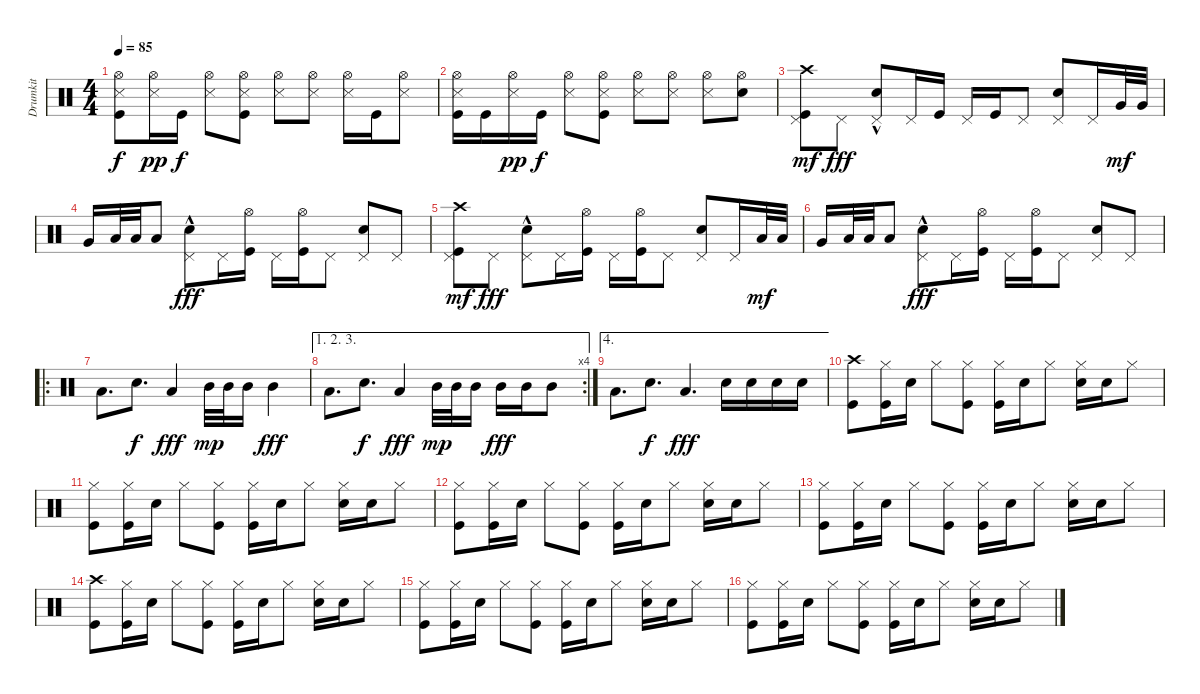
\track ("Drumkit" "Drumkit") {instrument percussion}
\staff {score}
\articulation defaults
\ts (4 4)
\tempo 85
\clef neutral
\ks c
("Snare (side stick) 3" "Kick (hit)" "Hi-Hat (open)").8{dy f} ("Snare (side stick) 3" "Hi-Hat (open)").16{dy pp} "Kick (hit)".16{dy f} ("Snare (side stick) 3" "Hi-Hat (open)").8 ("Snare (side stick) 3" "Hi-Hat (open)" "Kick (hit)").8 ("Snare (side stick) 3" "Hi-Hat (open)").8 ("Snare (side stick) 3" "Hi-Hat (open)").8 ("Snare (side stick) 3" "Hi-Hat (open)").16 "Kick (hit)".16 ("Snare (side stick) 3" "Hi-Hat (open)").8 |
("Snare (side stick) 3" "Kick (hit)" "Hi-Hat (open)").16 "Kick (hit)".16 ("Snare (side stick) 3" "Hi-Hat (open)").16{dy pp} "Kick (hit)".16{dy f} ("Snare (side stick) 3" "Hi-Hat (open)").8 ("Snare (side stick) 3" "Hi-Hat (open)" "Kick (hit)").8 ("Snare (side stick) 3" "Hi-Hat (open)").8 ("Snare (side stick) 3" "Hi-Hat (open)").8 ("Snare (side stick) 3" "Hi-Hat (open)").8 ("Snare (hit) 2" "Hi-Hat (open)").8 |
("Kick (hit)" "Pedal Hi-Hat (hit)" "Crash high (hit)").8{dy mf} "Pedal Hi-Hat (hit)".8{dy fff} ("Pedal Hi-Hat (hit)" "Snare (hit) 2"{hac}).8 "Pedal Hi-Hat (hit)".16 "Kick (hit)".16 "Pedal Hi-Hat (hit)".16 "Kick (hit)".16 "Pedal Hi-Hat (hit)".8 ("Snare (hit) 2" "Pedal Hi-Hat (hit)").8 "Pedal Hi-Hat (hit)".16 "Very Low Tom (hit)".32{dy mf} "Very Low Tom (hit)".32 |
"Very Low Tom (hit)".16 "Low Floor Tom (hit)".32 "Low Floor Tom (hit)".32 "Low Floor Tom (hit)".8 ("Pedal Hi-Hat (hit)" "Snare (hit) 2"{hac}).8{dy fff} "Pedal Hi-Hat (hit)".16 ("Kick (hit)" "Hi-Hat (open)").16 "Pedal Hi-Hat (hit)".16 ("Kick (hit)" "Hi-Hat (open)").16 "Pedal Hi-Hat (hit)".8 ("Snare (hit) 2" "Pedal Hi-Hat (hit)").8 "Pedal Hi-Hat (hit)".8 |
("Kick (hit)" "Pedal Hi-Hat (hit)" "Crash high (hit)").8{dy mf} "Pedal Hi-Hat (hit)".8{dy fff} ("Pedal Hi-Hat (hit)" "Snare (hit) 2"{hac}).8 "Pedal Hi-Hat (hit)".16 ("Kick (hit)" "Hi-Hat (open)").16 "Pedal Hi-Hat (hit)".16 ("Kick (hit)" "Hi-Hat (open)").16 "Pedal Hi-Hat (hit)".8 ("Snare (hit) 2" "Pedal Hi-Hat (hit)").8 "Pedal Hi-Hat (hit)".16 "Low Floor Tom (hit)".32{dy mf} "Low Floor Tom (hit)".32 |
"Very Low Tom (hit)".16 "Low Floor Tom (hit)".32 "Low Floor Tom (hit)".32 "Low Floor Tom (hit)".8 ("Pedal Hi-Hat (hit)" "Snare (hit) 2"{hac}).8{dy fff} "Pedal Hi-Hat (hit)".16 ("Kick (hit)" "Hi-Hat (open)").16 "Pedal Hi-Hat (hit)".16 ("Kick (hit)" "Hi-Hat (open)").16 "Pedal Hi-Hat (hit)".8 ("Snare (hit) 2" "Pedal Hi-Hat (hit)").8 "Pedal Hi-Hat (hit)".8 |
\ro "Low Floor Tom (hit)".8{d} "Snare (hit) 2".8{d dy f} "Low Floor Tom (hit)".4{dy fff} "Mid Tom (hit)".32{dy mp} "Mid Tom (hit)".32 "Mid Tom (hit)".16 "Mid Tom (hit)".4{dy fff}
|
\ae (1 2 3)
\rc 4 "Low Floor Tom (hit)".8{d} "Snare (hit) 2".8{d dy f} "Low Floor Tom (hit)".4{dy fff} "Mid Tom (hit)".32{dy mp} "Mid Tom (hit)".32 "Mid Tom (hit)".16 "Mid Tom (hit)".16{dy fff} "Mid Tom (hit)".16 "Mid Tom (hit)".8
|
\ae 4 "Low Floor Tom (hit)".8{d} "Snare (hit) 2".8{d dy f} "Low Floor Tom (hit)".4{d dy fff} "Snare (hit) 2".16 "Snare (hit) 2".16 "Snare (hit) 2".16 "Snare (hit) 2".16
|
("Kick (hit)" "Crash high (hit)").8 ("Hi-Hat (closed)" "Kick (hit)").16 "Snare (hit) 2".16 "Hi-Hat (closed)".8 ("Hi-Hat (closed)" "Kick (hit)").8 ("Hi-Hat (closed)" "Kick (hit)").16 "Snare (hit) 2".16 "Hi-Hat (closed)".8 ("Hi-Hat (closed)" "Snare (hit) 2").16 "Snare (hit) 2".16 "Hi-Hat (closed)".8 |
("Hi-Hat (closed)" "Kick (hit)").8 ("Hi-Hat (closed)" "Kick (hit)").16 "Snare (hit) 2".16 "Hi-Hat (closed)".8 ("Hi-Hat (closed)" "Kick (hit)").8 ("Hi-Hat (closed)" "Kick (hit)").16 "Snare (hit) 2".16 "Hi-Hat (closed)".8 ("Hi-Hat (closed)" "Snare (hit) 2").16 "Snare (hit) 2".16 "Hi-Hat (closed)".8 |
("Hi-Hat (closed)" "Kick (hit)").8 ("Hi-Hat (closed)" "Kick (hit)").16 "Snare (hit) 2".16 "Hi-Hat (closed)".8 ("Hi-Hat (closed)" "Kick (hit)").8 ("Hi-Hat (closed)" "Kick (hit)").16 "Snare (hit) 2".16 "Hi-Hat (closed)".8 ("Hi-Hat (closed)" "Snare (hit) 2").16 "Snare (hit) 2".16 "Hi-Hat (closed)".8 |
("Hi-Hat (closed)" "Kick (hit)").8 ("Hi-Hat (closed)" "Kick (hit)").16 "Snare (hit) 2".16 "Hi-Hat (closed)".8 ("Hi-Hat (closed)" "Kick (hit)").8 ("Hi-Hat (closed)" "Kick (hit)").16 "Snare (hit) 2".16 "Hi-Hat (closed)".8 ("Hi-Hat (closed)" "Snare (hit) 2").16 "Snare (hit) 2".16 "Hi-Hat (closed)".8 |
("Kick (hit)" "Crash high (hit)").8 ("Hi-Hat (closed)" "Kick (hit)").16 "Snare (hit) 2".16 "Hi-Hat (closed)".8 ("Hi-Hat (closed)" "Kick (hit)").8 ("Hi-Hat (closed)" "Kick (hit)").16 "Snare (hit) 2".16 "Hi-Hat (closed)".8 ("Hi-Hat (closed)" "Snare (hit) 2").16 "Snare (hit) 2".16 "Hi-Hat (closed)".8 |
("Hi-Hat (closed)" "Kick (hit)").8 ("Hi-Hat (closed)" "Kick (hit)").16 "Snare (hit) 2".16 "Hi-Hat (closed)".8 ("Hi-Hat (closed)" "Kick (hit)").8 ("Hi-Hat (closed)" "Kick (hit)").16 "Snare (hit) 2".16 "Hi-Hat (closed)".8 ("Hi-Hat (closed)" "Snare (hit) 2").16 "Snare (hit) 2".16 "Hi-Hat (closed)".8 |
("Hi-Hat (closed)" "Kick (hit)").8 ("Hi-Hat (closed)" "Kick (hit)").16 "Snare (hit) 2".16 "Hi-Hat (closed)".8 ("Hi-Hat (closed)" "Kick (hit)").8 ("Hi-Hat (closed)" "Kick (hit)").16 "Snare (hit) 2".16 "Hi-Hat (closed)".8 ("Hi-Hat (closed)" "Snare (hit) 2").16 "Snare (hit) 2".16 "Hi-Hat (closed)".8
